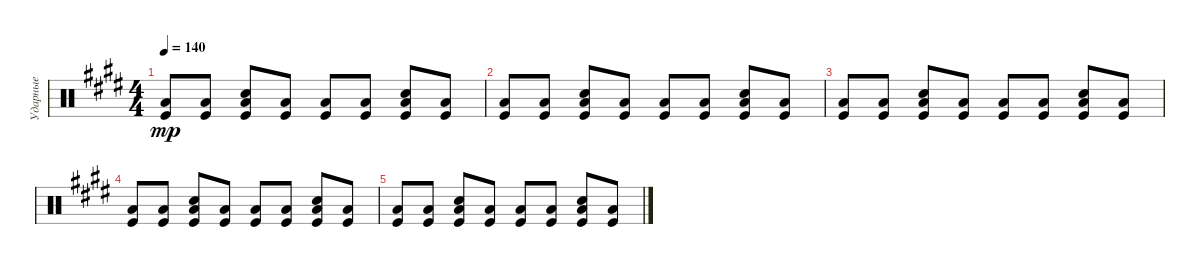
\track ("Ударные" "Ударные") {instrument percussion}
\staff {score}
\articulation defaults
\ts (4 4)
\tempo 140
\clef neutral
\ks c#minor
("Kick (hit)" "Low Floor Tom (hit)").8{dy mp} ("Kick (hit)" "Low Floor Tom (hit)").8 ("Kick (hit)" "Low Floor Tom (hit)" "Snare (hit) 2").8 ("Kick (hit)" "Low Floor Tom (hit)").8 ("Kick (hit)" "Low Floor Tom (hit)").8 ("Kick (hit)" "Low Floor Tom (hit)").8 ("Kick (hit)" "Low Floor Tom (hit)" "Snare (hit) 2").8 ("Kick (hit)" "Low Floor Tom (hit)").8 |
("Kick (hit)" "Low Floor Tom (hit)").8{volume 0} ("Kick (hit)" "Low Floor Tom (hit)").8 ("Kick (hit)" "Low Floor Tom (hit)" "Snare (hit) 2").8 ("Kick (hit)" "Low Floor Tom (hit)").8 ("Kick (hit)" "Low Floor Tom (hit)").8 ("Kick (hit)" "Low Floor Tom (hit)").8 ("Kick (hit)" "Low Floor Tom (hit)" "Snare (hit) 2").8 ("Kick (hit)" "Low Floor Tom (hit)").8 |
("Kick (hit)" "Low Floor Tom (hit)").8 ("Kick (hit)" "Low Floor Tom (hit)").8 ("Kick (hit)" "Low Floor Tom (hit)" "Snare (hit) 2").8 ("Kick (hit)" "Low Floor Tom (hit)").8 ("Kick (hit)" "Low Floor Tom (hit)").8 ("Kick (hit)" "Low Floor Tom (hit)").8 ("Kick (hit)" "Low Floor Tom (hit)" "Snare (hit) 2").8 ("Kick (hit)" "Low Floor Tom (hit)").8 |
("Kick (hit)" "Low Floor Tom (hit)").8 ("Kick (hit)" "Low Floor Tom (hit)").8 ("Kick (hit)" "Low Floor Tom (hit)" "Snare (hit) 2").8 ("Kick (hit)" "Low Floor Tom (hit)").8 ("Kick (hit)" "Low Floor Tom (hit)").8 ("Kick (hit)" "Low Floor Tom (hit)").8 ("Kick (hit)" "Low Floor Tom (hit)" "Snare (hit) 2").8 ("Kick (hit)" "Low Floor Tom (hit)").8 |
("Kick (hit)" "Low Floor Tom (hit)").8 ("Kick (hit)" "Low Floor Tom (hit)").8 ("Kick (hit)" "Low Floor Tom (hit)" "Snare (hit) 2").8 ("Kick (hit)" "Low Floor Tom (hit)").8 ("Kick (hit)" "Low Floor Tom (hit)").8 ("Kick (hit)" "Low Floor Tom (hit)").8 ("Kick (hit)" "Low Floor Tom (hit)" "Snare (hit) 2").8 ("Kick (hit)" "Low Floor Tom (hit)").8
